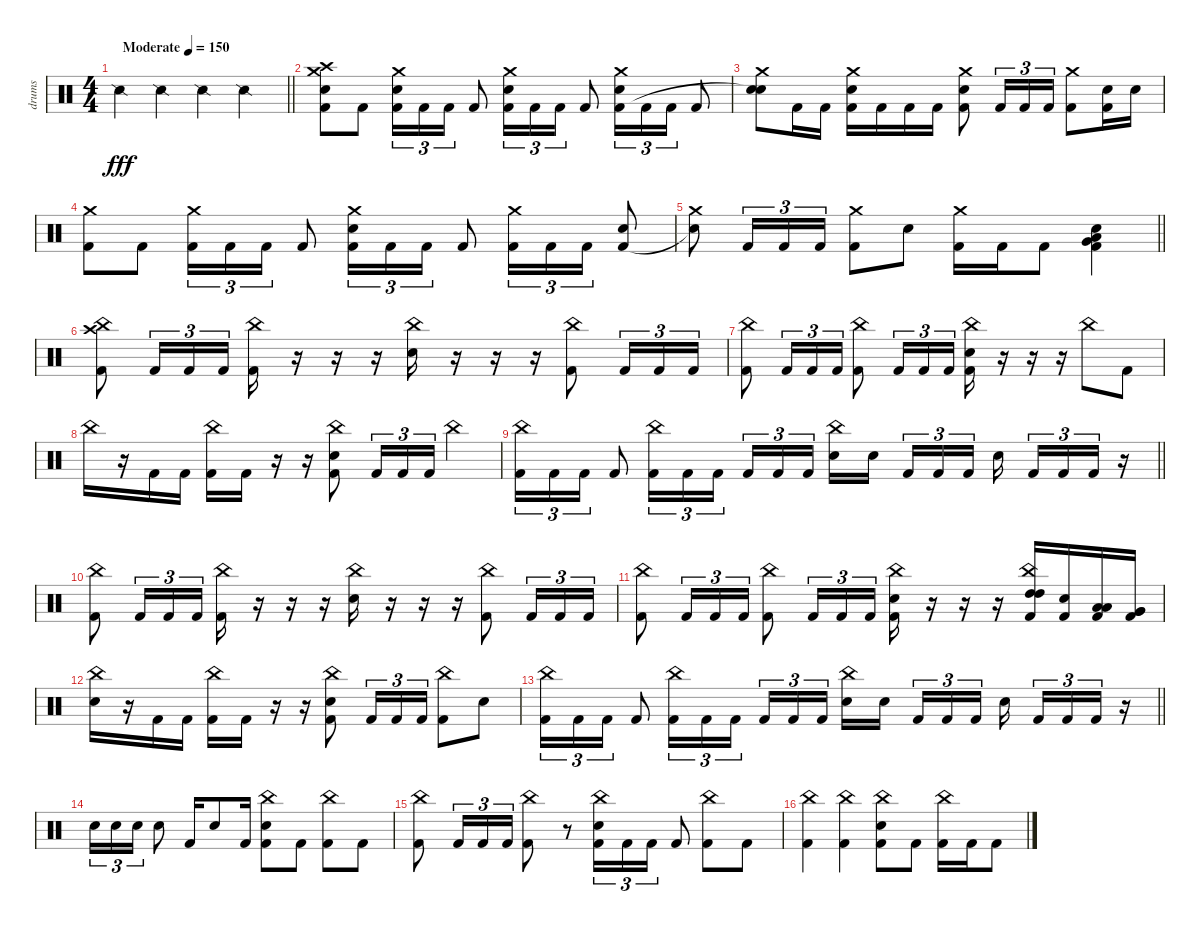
\track ("drums" "drums") {instrument percussion}
\staff {score}
\articulation defaults
\ts (4 4)
\tempo (150 "Moderate")
\clef neutral
\barLineRight lightlight
\ks c "Snare (side stick) 2".4{dy fff} "Snare (side stick) 2".4 "Snare (side stick) 2".4 "Snare (side stick) 2".4
|
\section ("" "")
("Crash high (hit)" "Crash medium (hit)" "Electric Snare (hit)" "Kick (hit) 2").8 "Kick (hit) 2".8 ("Crash medium (hit)" "Electric Snare (hit)" "Kick (hit) 2").16{tu (3 2)} "Kick (hit) 2".16{tu (3 2)} "Kick (hit) 2".16{tu (3 2)} "Kick (hit) 2".8 ("Crash medium (hit)" "Electric Snare (hit)" "Kick (hit) 2").16{tu (3 2)} "Kick (hit) 2".16{tu (3 2)} "Kick (hit) 2".16{tu (3 2)} "Kick (hit) 2".8 ("Crash medium (hit)" "Electric Snare (hit)" "Kick (hit) 2").16{tu (3 2)} "Kick (hit) 2".16{tu (3 2)} "Kick (hit) 2".16{tu (3 2)} "Kick (hit) 2".8 |
("Crash medium (hit)" "Electric Snare (hit)" "Snare (hit)"{t}).8 "Kick (hit) 2".16 "Kick (hit) 2".16 ("Crash medium (hit)" "Electric Snare (hit)" "Kick (hit) 2").16 "Kick (hit) 2".16 "Kick (hit) 2".16 "Kick (hit) 2".16 ("Crash medium (hit)" "Electric Snare (hit)" "Kick (hit) 2").8 "Kick (hit) 2".16{tu (3 2)} "Kick (hit) 2".16{tu (3 2)} "Kick (hit) 2".16{tu (3 2)} ("Crash medium (hit)" "Kick (hit) 2").8 ("Electric Snare (hit)" "Kick (hit) 2").16 "Electric Snare (hit)".16 |
("Crash medium (hit)" "Kick (hit) 2").8 "Kick (hit) 2".8 ("Crash medium (hit)" "Kick (hit) 2").16{tu (3 2)} "Kick (hit) 2".16{tu (3 2)} "Kick (hit) 2".16{tu (3 2)} "Kick (hit) 2".8 ("Crash medium (hit)" "Electric Snare (hit)" "Kick (hit) 2").16{tu (3 2)} "Kick (hit) 2".16{tu (3 2)} "Kick (hit) 2".16{tu (3 2)} "Kick (hit) 2".8 ("Crash medium (hit)" "Kick (hit) 2").16{tu (3 2)} "Kick (hit) 2".16{tu (3 2)} "Kick (hit) 2".16{tu (3 2)} ("Electric Snare (hit)" "Kick (hit) 2").8 |
\barLineRight lightlight
("Crash medium (hit)" "Snare (hit)"{t}).8 "Kick (hit) 2".16{tu (3 2)} "Kick (hit) 2".16{tu (3 2)} "Kick (hit) 2".16{tu (3 2)} ("Crash medium (hit)" "Kick (hit) 2").8 "Electric Snare (hit)".8 ("Crash medium (hit)" "Kick (hit) 2").16 "Kick (hit) 2".16 "Kick (hit) 2".8 ("Very Low Tom (hit)" "Low Floor Tom (hit)" "Electric Snare (hit)" "Kick (hit) 2").4 |
\section ("" "")
("China (hit)" "Crash high (hit)" "Kick (hit) 2").8 "Kick (hit) 2".16{tu (3 2)} "Kick (hit) 2".16{tu (3 2)} "Kick (hit) 2".16{tu (3 2)} ("China (hit)" "Kick (hit) 2").16 r.16 r.16 r.16 ("China (hit)" "Electric Snare (hit)").16 r.16 r.16 r.16 ("China (hit)" "Kick (hit) 2").8 "Kick (hit) 2".16{tu (3 2)} "Kick (hit) 2".16{tu (3 2)} "Kick (hit) 2".16{tu (3 2)} |
("China (hit)" "Kick (hit) 2").8 "Kick (hit) 2".16{tu (3 2)} "Kick (hit) 2".16{tu (3 2)} "Kick (hit) 2".16{tu (3 2)} ("China (hit)" "Kick (hit) 2").8 "Kick (hit) 2".16{tu (3 2)} "Kick (hit) 2".16{tu (3 2)} "Kick (hit) 2".16{tu (3 2)} ("China (hit)" "Electric Snare (hit)" "Kick (hit) 2").16 r.16 r.16 r.16 "China (hit)".8 "Kick (hit) 2".8 |
"China (hit)".16 r.16 "Kick (hit) 2".16 "Kick (hit) 2".16 ("China (hit)" "Kick (hit) 2").16 "Kick (hit) 2".16 r.16 r.16 ("China (hit)" "Electric Snare (hit)" "Kick (hit) 2").8 "Kick (hit) 2".16{tu (3 2)} "Kick (hit) 2".16{tu (3 2)} "Kick (hit) 2".16{tu (3 2)} "China (hit)".4 |
\barLineRight lightlight
("China (hit)" "Kick (hit) 2").16{tu (3 2)} "Kick (hit) 2".16{tu (3 2)} "Kick (hit) 2".16{tu (3 2)} "Kick (hit) 2".8 ("China (hit)" "Kick (hit) 2").16{tu (3 2)} "Kick (hit) 2".16{tu (3 2)} "Kick (hit) 2".16{tu (3 2) beam splitsecondary} "Kick (hit) 2".16{tu (3 2)} "Kick (hit) 2".16{tu (3 2)} "Kick (hit) 2".16{tu (3 2)} ("China (hit)" "Electric Snare (hit)").16 "Electric Snare (hit)".16{beam splitsecondary} "Kick (hit) 2".16{tu (3 2)} "Kick (hit) 2".16{tu (3 2)} "Kick (hit) 2".16{tu (3 2)} "Electric Snare (hit)".16{beam splitsecondary} "Kick (hit) 2".16{tu (3 2)} "Kick (hit) 2".16{tu (3 2)} "Kick (hit) 2".16{tu (3 2)} r.16 |
("China (hit)" "Kick (hit) 2").8 "Kick (hit) 2".16{tu (3 2)} "Kick (hit) 2".16{tu (3 2)} "Kick (hit) 2".16{tu (3 2)} ("China (hit)" "Kick (hit) 2").16 r.16 r.16 r.16 ("China (hit)" "Electric Snare (hit)").16 r.16 r.16 r.16 ("China (hit)" "Kick (hit) 2").8 "Kick (hit) 2".16{tu (3 2)} "Kick (hit) 2".16{tu (3 2)} "Kick (hit) 2".16{tu (3 2)} |
("China (hit)" "Kick (hit) 2").8 "Kick (hit) 2".16{tu (3 2)} "Kick (hit) 2".16{tu (3 2)} "Kick (hit) 2".16{tu (3 2)} ("China (hit)" "Kick (hit) 2").8 "Kick (hit) 2".16{tu (3 2)} "Kick (hit) 2".16{tu (3 2)} "Kick (hit) 2".16{tu (3 2)} ("China (hit)" "Electric Snare (hit)" "Kick (hit) 2").16 r.16 r.16 r.16 ("China (hit)" "High Tom (hit)" "High Tom (hit)" "Kick (hit) 2").16 ("Electric Snare (hit)" "Kick (hit) 2").16 ("Low Tom (hit)" "Low Tom (hit)" "Kick (hit) 2").16 ("Very Low Tom (hit)" "Very Low Tom (hit)" "Kick (hit) 2").16 |
("China (hit)" "Electric Snare (hit)").16 r.16 "Kick (hit) 2".16 "Kick (hit) 2".16 ("China (hit)" "Kick (hit) 2").16 "Kick (hit) 2".16 r.16 r.16 ("China (hit)" "Electric Snare (hit)" "Kick (hit) 2").8 "Kick (hit) 2".16{tu (3 2)} "Kick (hit) 2".16{tu (3 2)} "Kick (hit) 2".16{tu (3 2)} ("China (hit)" "Kick (hit) 2").8 "Electric Snare (hit)".8 |
\barLineRight lightlight
("China (hit)" "Kick (hit) 2").16{tu (3 2)} "Kick (hit) 2".16{tu (3 2)} "Kick (hit) 2".16{tu (3 2)} "Kick (hit) 2".8 ("China (hit)" "Kick (hit) 2").16{tu (3 2)} "Kick (hit) 2".16{tu (3 2)} "Kick (hit) 2".16{tu (3 2) beam splitsecondary} "Kick (hit) 2".16{tu (3 2)} "Kick (hit) 2".16{tu (3 2)} "Kick (hit) 2".16{tu (3 2)} ("China (hit)" "Electric Snare (hit)").16 "Electric Snare (hit)".16{beam splitsecondary} "Kick (hit) 2".16{tu (3 2)} "Kick (hit) 2".16{tu (3 2)} "Kick (hit) 2".16{tu (3 2)} "Electric Snare (hit)".16{beam splitsecondary} "Kick (hit) 2".16{tu (3 2)} "Kick (hit) 2".16{tu (3 2)} "Kick (hit) 2".16{tu (3 2)} r.16 |
\section ("" "")
"Electric Snare (hit)".16{tu (3 2)} "Electric Snare (hit)".16{tu (3 2)} "Electric Snare (hit)".16{tu (3 2)} "Electric Snare (hit)".8 "Kick (hit) 2".16 "Electric Snare (hit)".8 "Kick (hit) 2".16 ("China (hit)" "Electric Snare (hit)" "Kick (hit) 2").8 "Kick (hit) 2".8 ("China (hit)" "Kick (hit) 2").8 "Kick (hit) 2".8 |
("China (hit)" "Kick (hit) 2").8 "Kick (hit) 2".16{tu (3 2)} "Kick (hit) 2".16{tu (3 2)} "Kick (hit) 2".16{tu (3 2)} ("China (hit)" "Kick (hit) 2").8 r.8 ("China (hit)" "Electric Snare (hit)" "Kick (hit) 2").16{tu (3 2)} "Kick (hit) 2".16{tu (3 2)} "Kick (hit) 2".16{tu (3 2)} "Kick (hit) 2".8 ("China (hit)" "Kick (hit) 2").8 "Kick (hit) 2".8 |
("China (hit)" "Kick (hit) 2").4 ("China (hit)" "Kick (hit) 2").4 ("China (hit)" "Electric Snare (hit)" "Kick (hit) 2").8 "Kick (hit) 2".8 ("China (hit)" "Kick (hit) 2").16 "Kick (hit) 2".16 "Kick (hit) 2".8
